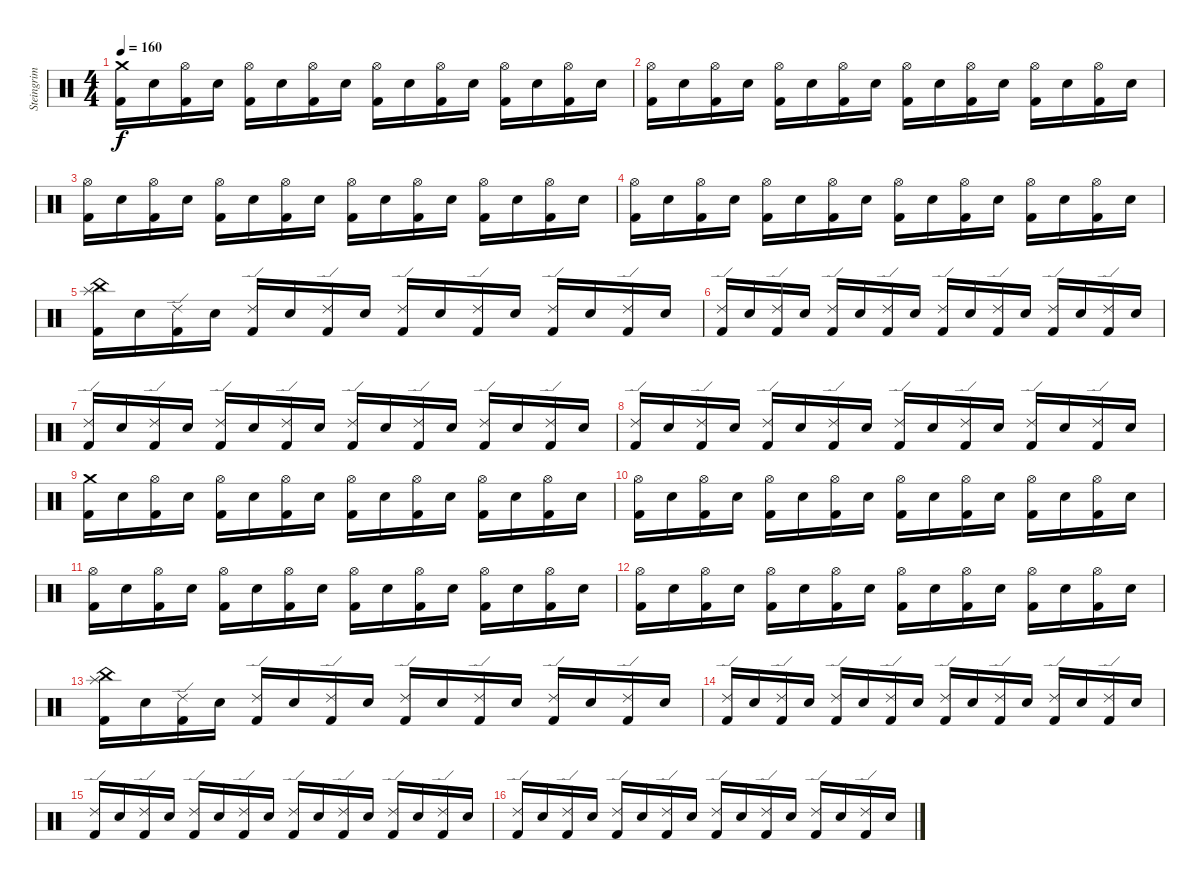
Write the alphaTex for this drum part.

\track ("Steingrim Trommur" "Steingrim ") {instrument percussion}
\staff {score}
\articulation defaults
\ts (4 4)
\tempo 160
\clef neutral
\ks c
("Crash medium (hit)" "Kick (hit) 2").16{dy f} "Electric Snare (hit)".16 ("Hi-Hat (open)" "Kick (hit) 2").16 "Electric Snare (hit)".16 ("Hi-Hat (open)" "Kick (hit) 2").16 "Electric Snare (hit)".16 ("Hi-Hat (open)" "Kick (hit) 2").16 "Electric Snare (hit)".16 ("Hi-Hat (open)" "Kick (hit) 2").16 "Electric Snare (hit)".16 ("Hi-Hat (open)" "Kick (hit) 2").16 "Electric Snare (hit)".16 ("Hi-Hat (open)" "Kick (hit) 2").16 "Electric Snare (hit)".16 ("Hi-Hat (open)" "Kick (hit) 2").16 "Electric Snare (hit)".16 |
("Hi-Hat (open)" "Kick (hit) 2").16 "Electric Snare (hit)".16 ("Hi-Hat (open)" "Kick (hit) 2").16 "Electric Snare (hit)".16 ("Hi-Hat (open)" "Kick (hit) 2").16 "Electric Snare (hit)".16 ("Hi-Hat (open)" "Kick (hit) 2").16 "Electric Snare (hit)".16 ("Hi-Hat (open)" "Kick (hit) 2").16 "Electric Snare (hit)".16 ("Hi-Hat (open)" "Kick (hit) 2").16 "Electric Snare (hit)".16 ("Hi-Hat (open)" "Kick (hit) 2").16 "Electric Snare (hit)".16 ("Hi-Hat (open)" "Kick (hit) 2").16 "Electric Snare (hit)".16 |
("Hi-Hat (open)" "Kick (hit) 2").16 "Electric Snare (hit)".16 ("Hi-Hat (open)" "Kick (hit) 2").16 "Electric Snare (hit)".16 ("Hi-Hat (open)" "Kick (hit) 2").16 "Electric Snare (hit)".16 ("Hi-Hat (open)" "Kick (hit) 2").16 "Electric Snare (hit)".16 ("Hi-Hat (open)" "Kick (hit) 2").16 "Electric Snare (hit)".16 ("Hi-Hat (open)" "Kick (hit) 2").16 "Electric Snare (hit)".16 ("Hi-Hat (open)" "Kick (hit) 2").16 "Electric Snare (hit)".16 ("Hi-Hat (open)" "Kick (hit) 2").16 "Electric Snare (hit)".16 |
("Hi-Hat (open)" "Kick (hit) 2").16 "Electric Snare (hit)".16 ("Hi-Hat (open)" "Kick (hit) 2").16 "Electric Snare (hit)".16 ("Hi-Hat (open)" "Kick (hit) 2").16 "Electric Snare (hit)".16 ("Hi-Hat (open)" "Kick (hit) 2").16 "Electric Snare (hit)".16 ("Hi-Hat (open)" "Kick (hit) 2").16 "Electric Snare (hit)".16 ("Hi-Hat (open)" "Kick (hit) 2").16 "Electric Snare (hit)".16 ("Hi-Hat (open)" "Kick (hit) 2").16 "Electric Snare (hit)".16 ("Hi-Hat (open)" "Kick (hit) 2").16 "Electric Snare (hit)".16 |
("Splash (hit)" "China (hit)" "Kick (hit) 2").16 "Electric Snare (hit)".16 ("Ride (edge) 2" "Kick (hit) 2").16 "Electric Snare (hit)".16 ("Ride (edge) 2" "Kick (hit) 2").16 "Electric Snare (hit)".16 ("Ride (edge) 2" "Kick (hit) 2").16 "Electric Snare (hit)".16 ("Ride (edge) 2" "Kick (hit) 2").16 "Electric Snare (hit)".16 ("Ride (edge) 2" "Kick (hit) 2").16 "Electric Snare (hit)".16 ("Ride (edge) 2" "Kick (hit) 2").16 "Electric Snare (hit)".16 ("Ride (edge) 2" "Kick (hit) 2").16 "Electric Snare (hit)".16 |
("Ride (edge) 2" "Kick (hit) 2").16 "Electric Snare (hit)".16 ("Ride (edge) 2" "Kick (hit) 2").16 "Electric Snare (hit)".16 ("Ride (edge) 2" "Kick (hit) 2").16 "Electric Snare (hit)".16 ("Ride (edge) 2" "Kick (hit) 2").16 "Electric Snare (hit)".16 ("Ride (edge) 2" "Kick (hit) 2").16 "Electric Snare (hit)".16 ("Ride (edge) 2" "Kick (hit) 2").16 "Electric Snare (hit)".16 ("Ride (edge) 2" "Kick (hit) 2").16 "Electric Snare (hit)".16 ("Ride (edge) 2" "Kick (hit) 2").16 "Electric Snare (hit)".16 |
("Ride (edge) 2" "Kick (hit) 2").16 "Electric Snare (hit)".16 ("Ride (edge) 2" "Kick (hit) 2").16 "Electric Snare (hit)".16 ("Ride (edge) 2" "Kick (hit) 2").16 "Electric Snare (hit)".16 ("Ride (edge) 2" "Kick (hit) 2").16 "Electric Snare (hit)".16 ("Ride (edge) 2" "Kick (hit) 2").16 "Electric Snare (hit)".16 ("Ride (edge) 2" "Kick (hit) 2").16 "Electric Snare (hit)".16 ("Ride (edge) 2" "Kick (hit) 2").16 "Electric Snare (hit)".16 ("Ride (edge) 2" "Kick (hit) 2").16 "Electric Snare (hit)".16 |
("Ride (edge) 2" "Kick (hit) 2").16 "Electric Snare (hit)".16 ("Ride (edge) 2" "Kick (hit) 2").16 "Electric Snare (hit)".16 ("Ride (edge) 2" "Kick (hit) 2").16 "Electric Snare (hit)".16 ("Ride (edge) 2" "Kick (hit) 2").16 "Electric Snare (hit)".16 ("Ride (edge) 2" "Kick (hit) 2").16 "Electric Snare (hit)".16 ("Ride (edge) 2" "Kick (hit) 2").16 "Electric Snare (hit)".16 ("Ride (edge) 2" "Kick (hit) 2").16 "Electric Snare (hit)".16 ("Ride (edge) 2" "Kick (hit) 2").16 "Electric Snare (hit)".16 |
("Crash medium (hit)" "Kick (hit) 2").16 "Electric Snare (hit)".16 ("Hi-Hat (open)" "Kick (hit) 2").16 "Electric Snare (hit)".16 ("Hi-Hat (open)" "Kick (hit) 2").16 "Electric Snare (hit)".16 ("Hi-Hat (open)" "Kick (hit) 2").16 "Electric Snare (hit)".16 ("Hi-Hat (open)" "Kick (hit) 2").16 "Electric Snare (hit)".16 ("Hi-Hat (open)" "Kick (hit) 2").16 "Electric Snare (hit)".16 ("Hi-Hat (open)" "Kick (hit) 2").16 "Electric Snare (hit)".16 ("Hi-Hat (open)" "Kick (hit) 2").16 "Electric Snare (hit)".16 |
("Hi-Hat (open)" "Kick (hit) 2").16 "Electric Snare (hit)".16 ("Hi-Hat (open)" "Kick (hit) 2").16 "Electric Snare (hit)".16 ("Hi-Hat (open)" "Kick (hit) 2").16 "Electric Snare (hit)".16 ("Hi-Hat (open)" "Kick (hit) 2").16 "Electric Snare (hit)".16 ("Hi-Hat (open)" "Kick (hit) 2").16 "Electric Snare (hit)".16 ("Hi-Hat (open)" "Kick (hit) 2").16 "Electric Snare (hit)".16 ("Hi-Hat (open)" "Kick (hit) 2").16 "Electric Snare (hit)".16 ("Hi-Hat (open)" "Kick (hit) 2").16 "Electric Snare (hit)".16 |
("Hi-Hat (open)" "Kick (hit) 2").16 "Electric Snare (hit)".16 ("Hi-Hat (open)" "Kick (hit) 2").16 "Electric Snare (hit)".16 ("Hi-Hat (open)" "Kick (hit) 2").16 "Electric Snare (hit)".16 ("Hi-Hat (open)" "Kick (hit) 2").16 "Electric Snare (hit)".16 ("Hi-Hat (open)" "Kick (hit) 2").16 "Electric Snare (hit)".16 ("Hi-Hat (open)" "Kick (hit) 2").16 "Electric Snare (hit)".16 ("Hi-Hat (open)" "Kick (hit) 2").16 "Electric Snare (hit)".16 ("Hi-Hat (open)" "Kick (hit) 2").16 "Electric Snare (hit)".16 |
("Hi-Hat (open)" "Kick (hit) 2").16 "Electric Snare (hit)".16 ("Hi-Hat (open)" "Kick (hit) 2").16 "Electric Snare (hit)".16 ("Hi-Hat (open)" "Kick (hit) 2").16 "Electric Snare (hit)".16 ("Hi-Hat (open)" "Kick (hit) 2").16 "Electric Snare (hit)".16 ("Hi-Hat (open)" "Kick (hit) 2").16 "Electric Snare (hit)".16 ("Hi-Hat (open)" "Kick (hit) 2").16 "Electric Snare (hit)".16 ("Hi-Hat (open)" "Kick (hit) 2").16 "Electric Snare (hit)".16 ("Hi-Hat (open)" "Kick (hit) 2").16 "Electric Snare (hit)".16 |
("Splash (hit)" "China (hit)" "Kick (hit) 2").16 "Electric Snare (hit)".16 ("Ride (edge) 2" "Kick (hit) 2").16 "Electric Snare (hit)".16 ("Ride (edge) 2" "Kick (hit) 2").16 "Electric Snare (hit)".16 ("Ride (edge) 2" "Kick (hit) 2").16 "Electric Snare (hit)".16 ("Ride (edge) 2" "Kick (hit) 2").16 "Electric Snare (hit)".16 ("Ride (edge) 2" "Kick (hit) 2").16 "Electric Snare (hit)".16 ("Ride (edge) 2" "Kick (hit) 2").16 "Electric Snare (hit)".16 ("Ride (edge) 2" "Kick (hit) 2").16 "Electric Snare (hit)".16 |
("Ride (edge) 2" "Kick (hit) 2").16 "Electric Snare (hit)".16 ("Ride (edge) 2" "Kick (hit) 2").16 "Electric Snare (hit)".16 ("Ride (edge) 2" "Kick (hit) 2").16 "Electric Snare (hit)".16 ("Ride (edge) 2" "Kick (hit) 2").16 "Electric Snare (hit)".16 ("Ride (edge) 2" "Kick (hit) 2").16 "Electric Snare (hit)".16 ("Ride (edge) 2" "Kick (hit) 2").16 "Electric Snare (hit)".16 ("Ride (edge) 2" "Kick (hit) 2").16 "Electric Snare (hit)".16 ("Ride (edge) 2" "Kick (hit) 2").16 "Electric Snare (hit)".16 |
("Ride (edge) 2" "Kick (hit) 2").16 "Electric Snare (hit)".16 ("Ride (edge) 2" "Kick (hit) 2").16 "Electric Snare (hit)".16 ("Ride (edge) 2" "Kick (hit) 2").16 "Electric Snare (hit)".16 ("Ride (edge) 2" "Kick (hit) 2").16 "Electric Snare (hit)".16 ("Ride (edge) 2" "Kick (hit) 2").16 "Electric Snare (hit)".16 ("Ride (edge) 2" "Kick (hit) 2").16 "Electric Snare (hit)".16 ("Ride (edge) 2" "Kick (hit) 2").16 "Electric Snare (hit)".16 ("Ride (edge) 2" "Kick (hit) 2").16 "Electric Snare (hit)".16 |
("Ride (edge) 2" "Kick (hit) 2").16 "Electric Snare (hit)".16 ("Ride (edge) 2" "Kick (hit) 2").16 "Electric Snare (hit)".16 ("Ride (edge) 2" "Kick (hit) 2").16 "Electric Snare (hit)".16 ("Ride (edge) 2" "Kick (hit) 2").16 "Electric Snare (hit)".16 ("Ride (edge) 2" "Kick (hit) 2").16 "Electric Snare (hit)".16 ("Ride (edge) 2" "Kick (hit) 2").16 "Electric Snare (hit)".16 ("Ride (edge) 2" "Kick (hit) 2").16 "Electric Snare (hit)".16 ("Ride (edge) 2" "Kick (hit) 2").16 "Electric Snare (hit)".16
